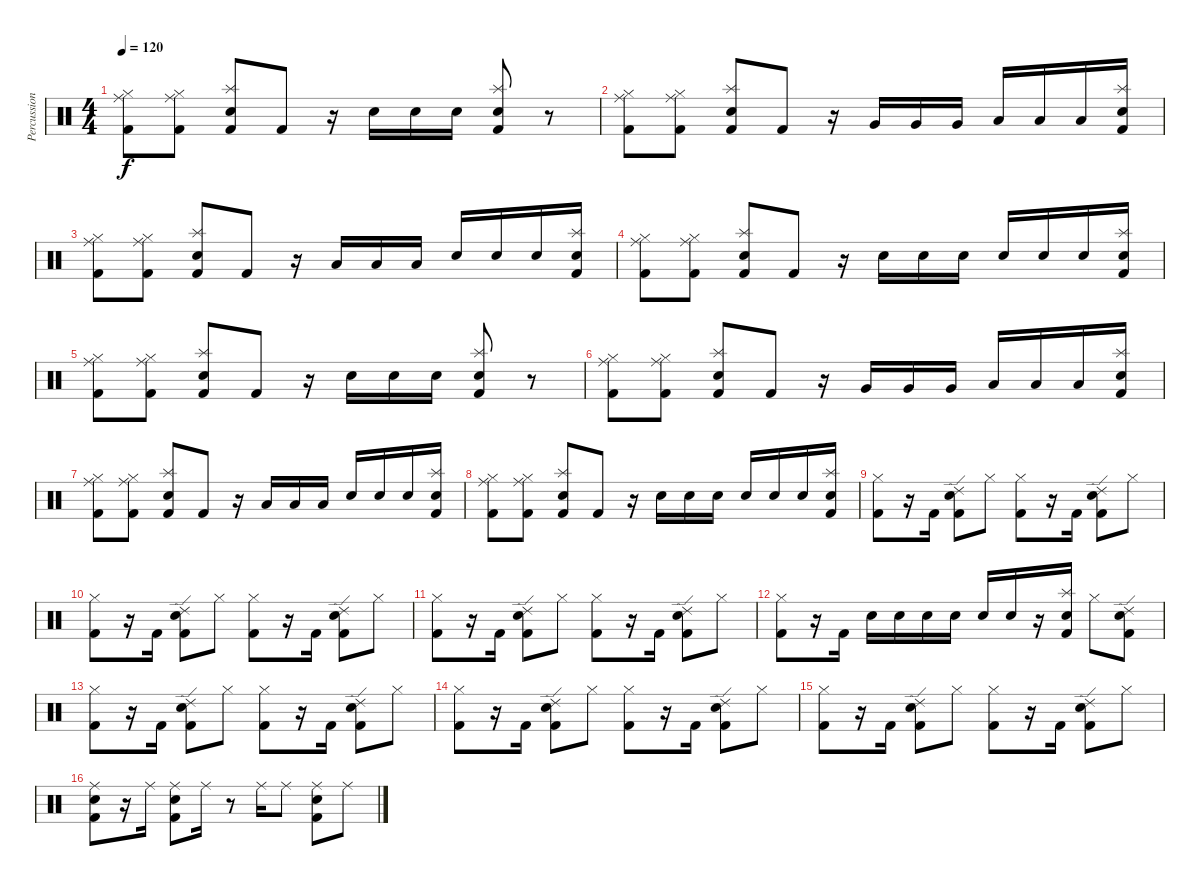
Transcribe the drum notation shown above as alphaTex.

\track ("Percussions" "Percussion") {instrument percussion}
\staff {score}
\articulation defaults
\ts (4 4)
\tempo 120
\clef neutral
\ks c
("Ride (middle)" "Hi-Hat (closed)" "Kick (hit) 2").8{dy f} ("Ride (middle)" "Hi-Hat (closed)" "Kick (hit) 2").8 ("Splash (hit)" "Electric Snare (hit)" "Kick (hit) 2").8 "Kick (hit) 2".8 r.16 "Electric Snare (hit)".16 "Electric Snare (hit)".16 "Electric Snare (hit)".16 ("Splash (hit)" "Electric Snare (hit)" "Kick (hit) 2").8 r.8 |
("Ride (middle)" "Hi-Hat (closed)" "Kick (hit) 2").8 ("Ride (middle)" "Hi-Hat (closed)" "Kick (hit) 2").8 ("Splash (hit)" "Electric Snare (hit)" "Kick (hit) 2").8 "Kick (hit) 2".8 r.16 "Very Low Tom (hit)".16 "Very Low Tom (hit)".16 "Very Low Tom (hit)".16 "Low Floor Tom (hit)".16 "Low Floor Tom (hit)".16 "Low Floor Tom (hit)".16 ("Splash (hit)" "Electric Snare (hit)" "Kick (hit) 2").16 |
("Ride (middle)" "Hi-Hat (closed)" "Kick (hit) 2").8 ("Ride (middle)" "Hi-Hat (closed)" "Kick (hit) 2").8 ("Splash (hit)" "Electric Snare (hit)" "Kick (hit) 2").8 "Kick (hit) 2".8 r.16 "Low Floor Tom (hit)".16 "Low Floor Tom (hit)".16 "Low Floor Tom (hit)".16 "Electric Snare (hit)".16 "Electric Snare (hit)".16 "Electric Snare (hit)".16 ("Splash (hit)" "Electric Snare (hit)" "Kick (hit) 2").16 |
("Ride (middle)" "Hi-Hat (closed)" "Kick (hit) 2").8 ("Ride (middle)" "Hi-Hat (closed)" "Kick (hit) 2").8 ("Splash (hit)" "Electric Snare (hit)" "Kick (hit) 2").8 "Kick (hit) 2".8 r.16 "Electric Snare (hit)".16 "Electric Snare (hit)".16 "Electric Snare (hit)".16 "Electric Snare (hit)".16 "Electric Snare (hit)".16 "Electric Snare (hit)".16 ("Splash (hit)" "Electric Snare (hit)" "Kick (hit) 2").16 |
("Ride (middle)" "Hi-Hat (closed)" "Kick (hit) 2").8 ("Ride (middle)" "Hi-Hat (closed)" "Kick (hit) 2").8 ("Splash (hit)" "Electric Snare (hit)" "Kick (hit) 2").8 "Kick (hit) 2".8 r.16 "Electric Snare (hit)".16 "Electric Snare (hit)".16 "Electric Snare (hit)".16 ("Splash (hit)" "Electric Snare (hit)" "Kick (hit) 2").8 r.8 |
("Ride (middle)" "Hi-Hat (closed)" "Kick (hit) 2").8 ("Ride (middle)" "Hi-Hat (closed)" "Kick (hit) 2").8 ("Splash (hit)" "Electric Snare (hit)" "Kick (hit) 2").8 "Kick (hit) 2".8 r.16 "Very Low Tom (hit)".16 "Very Low Tom (hit)".16 "Very Low Tom (hit)".16 "Low Floor Tom (hit)".16 "Low Floor Tom (hit)".16 "Low Floor Tom (hit)".16 ("Splash (hit)" "Electric Snare (hit)" "Kick (hit) 2").16 |
("Ride (middle)" "Hi-Hat (closed)" "Kick (hit) 2").8 ("Ride (middle)" "Hi-Hat (closed)" "Kick (hit) 2").8 ("Splash (hit)" "Electric Snare (hit)" "Kick (hit) 2").8 "Kick (hit) 2".8 r.16 "Low Floor Tom (hit)".16 "Low Floor Tom (hit)".16 "Low Floor Tom (hit)".16 "Electric Snare (hit)".16 "Electric Snare (hit)".16 "Electric Snare (hit)".16 ("Splash (hit)" "Electric Snare (hit)" "Kick (hit) 2").16 |
("Ride (middle)" "Hi-Hat (closed)" "Kick (hit) 2").8 ("Ride (middle)" "Hi-Hat (closed)" "Kick (hit) 2").8 ("Splash (hit)" "Electric Snare (hit)" "Kick (hit) 2").8 "Kick (hit) 2".8 r.16 "Electric Snare (hit)".16 "Electric Snare (hit)".16 "Electric Snare (hit)".16 "Electric Snare (hit)".16 "Electric Snare (hit)".16 "Electric Snare (hit)".16 ("Splash (hit)" "Electric Snare (hit)" "Kick (hit) 2").16 |
("Hi-Hat (closed)" "Kick (hit) 2").8 r.16 "Kick (hit) 2".16 ("Ride (edge) 2" "Electric Snare (hit)" "Kick (hit) 2").8 "Hi-Hat (closed)".8 ("Hi-Hat (closed)" "Kick (hit) 2").8 r.16 "Kick (hit) 2".16 ("Ride (edge) 2" "Electric Snare (hit)" "Kick (hit) 2").8 "Hi-Hat (closed)".8 |
("Hi-Hat (closed)" "Kick (hit) 2").8 r.16 "Kick (hit) 2".16 ("Ride (edge) 2" "Electric Snare (hit)" "Kick (hit) 2").8 "Hi-Hat (closed)".8 ("Hi-Hat (closed)" "Kick (hit) 2").8 r.16 "Kick (hit) 2".16 ("Ride (edge) 2" "Electric Snare (hit)" "Kick (hit) 2").8 "Hi-Hat (closed)".8 |
("Hi-Hat (closed)" "Kick (hit) 2").8 r.16 "Kick (hit) 2".16 ("Ride (edge) 2" "Electric Snare (hit)" "Kick (hit) 2").8 "Hi-Hat (closed)".8 ("Hi-Hat (closed)" "Kick (hit) 2").8 r.16 "Kick (hit) 2".16 ("Ride (edge) 2" "Electric Snare (hit)" "Kick (hit) 2").8 "Hi-Hat (closed)".8 |
("Hi-Hat (closed)" "Kick (hit) 2").8 r.16 "Kick (hit) 2".16 "Electric Snare (hit)".16 "Electric Snare (hit)".16 "Electric Snare (hit)".16 "Electric Snare (hit)".16 "Electric Snare (hit)".16 "Electric Snare (hit)".16 r.16 ("Splash (hit)" "Electric Snare (hit)" "Kick (hit) 2").16 "Hi-Hat (closed)".8 ("Ride (edge) 2" "Electric Snare (hit)" "Kick (hit) 2").8 |
("Hi-Hat (closed)" "Kick (hit) 2").8 r.16 "Kick (hit) 2".16 ("Ride (edge) 2" "Electric Snare (hit)" "Kick (hit) 2").8 "Hi-Hat (closed)".8 ("Hi-Hat (closed)" "Kick (hit) 2").8 r.16 "Kick (hit) 2".16 ("Ride (edge) 2" "Electric Snare (hit)" "Kick (hit) 2").8 "Hi-Hat (closed)".8 |
("Hi-Hat (closed)" "Kick (hit) 2").8 r.16 "Kick (hit) 2".16 ("Ride (edge) 2" "Electric Snare (hit)" "Kick (hit) 2").8 "Hi-Hat (closed)".8 ("Hi-Hat (closed)" "Kick (hit) 2").8 r.16 "Kick (hit) 2".16 ("Ride (edge) 2" "Electric Snare (hit)" "Kick (hit) 2").8 "Hi-Hat (closed)".8 |
("Hi-Hat (closed)" "Kick (hit) 2").8 r.16 "Kick (hit) 2".16 ("Ride (edge) 2" "Electric Snare (hit)" "Kick (hit) 2").8 "Hi-Hat (closed)".8 ("Hi-Hat (closed)" "Kick (hit) 2").8 r.16 "Kick (hit) 2".16 ("Ride (edge) 2" "Electric Snare (hit)" "Kick (hit) 2").8 "Hi-Hat (closed)".8 |
("Ride (middle)" "Electric Snare (hit)" "Kick (hit) 2").8 r.16 "Ride (middle)".16 ("Ride (middle)" "Electric Snare (hit)" "Kick (hit) 2").8 "Ride (middle)".16 r.8 "Ride (middle)".16 "Ride (middle)".8 ("Ride (middle)" "Electric Snare (hit)" "Kick (hit) 2").8 "Ride (middle)".8
